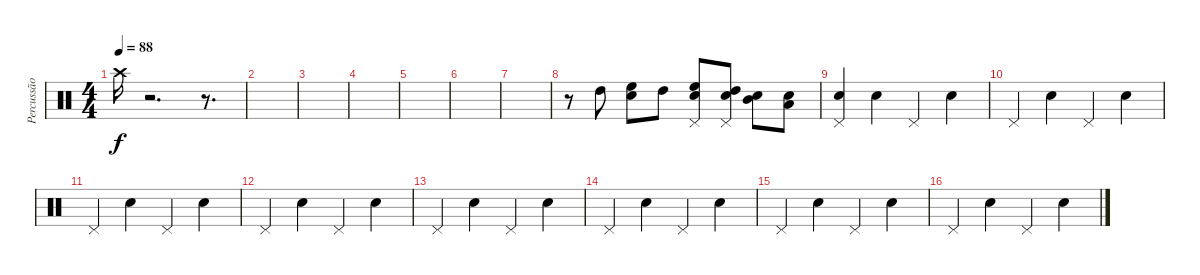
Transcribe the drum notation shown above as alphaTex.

\track ("Percussão" "Percussão") {instrument percussion}
\staff {score}
\articulation defaults
\ts (4 4)
\tempo 88
\clef neutral
\ks c "Crash high (hit)".16{dy f}
r.2{d} r.8{d} |
|
|
|
|
|
|
r.8 "High Tom (hit)".8 ("Electric Snare (hit)" "High Floor Tom (hit)").8 "High Tom (hit)".8 ("Pedal Hi-Hat (hit)" "Electric Snare (hit)" "High Floor Tom (hit)").8 ("Pedal Hi-Hat (hit)" "Electric Snare (hit)" "High Tom (hit)").8 ("Electric Snare (hit)" "Mid Tom (hit)").8 ("Electric Snare (hit)" "Low Tom (hit)").8 |
("Pedal Hi-Hat (hit)" "Snare (hit)").4 "Electric Snare (hit)".4 "Pedal Hi-Hat (hit)".4 "Electric Snare (hit)".4 |
"Pedal Hi-Hat (hit)".4 "Electric Snare (hit)".4 "Pedal Hi-Hat (hit)".4 "Electric Snare (hit)".4 |
"Pedal Hi-Hat (hit)".4 "Electric Snare (hit)".4 "Pedal Hi-Hat (hit)".4 "Electric Snare (hit)".4 |
"Pedal Hi-Hat (hit)".4 "Electric Snare (hit)".4 "Pedal Hi-Hat (hit)".4 "Electric Snare (hit)".4 |
"Pedal Hi-Hat (hit)".4 "Electric Snare (hit)".4 "Pedal Hi-Hat (hit)".4 "Electric Snare (hit)".4 |
"Pedal Hi-Hat (hit)".4 "Electric Snare (hit)".4 "Pedal Hi-Hat (hit)".4 "Electric Snare (hit)".4 |
"Pedal Hi-Hat (hit)".4 "Electric Snare (hit)".4 "Pedal Hi-Hat (hit)".4 "Electric Snare (hit)".4 |
"Pedal Hi-Hat (hit)".4 "Electric Snare (hit)".4 "Pedal Hi-Hat (hit)".4 "Electric Snare (hit)".4
